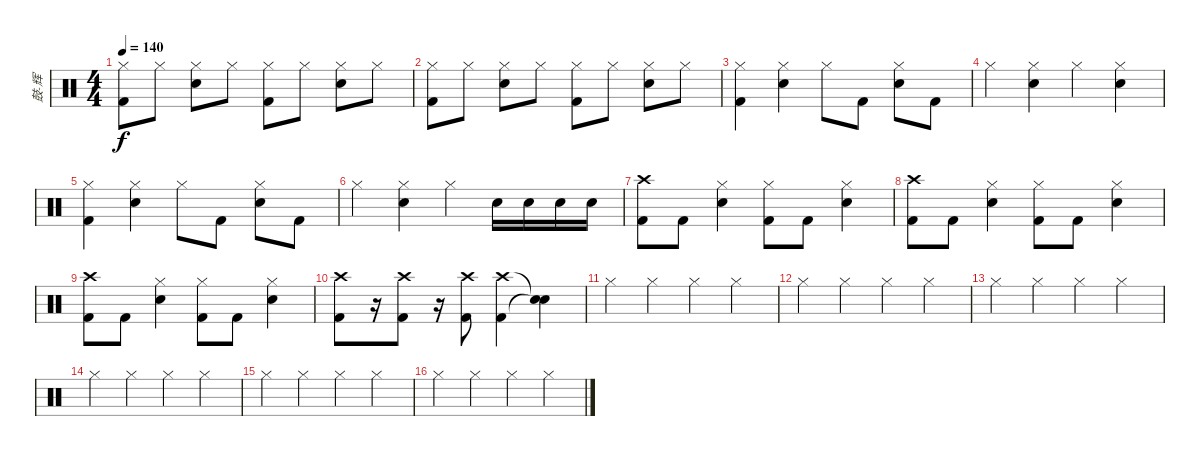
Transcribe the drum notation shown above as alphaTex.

\track ("鼓-辉" "鼓-辉") {instrument percussion}
\staff {score}
\articulation defaults
\ts (4 4)
\tempo 140
\clef neutral
\ks c
("Hi-Hat (closed)" "Kick (hit) 2").8{dy f} "Hi-Hat (closed)".8 ("Hi-Hat (closed)" "Snare (hit) 2").8 "Hi-Hat (closed)".8 ("Hi-Hat (closed)" "Kick (hit) 2").8 "Hi-Hat (closed)".8 ("Hi-Hat (closed)" "Snare (hit) 2").8 "Hi-Hat (closed)".8 |
("Hi-Hat (closed)" "Kick (hit) 2").8 "Hi-Hat (closed)".8 ("Hi-Hat (closed)" "Snare (hit) 2").8 "Hi-Hat (closed)".8 ("Hi-Hat (closed)" "Kick (hit) 2").8 "Hi-Hat (closed)".8 ("Hi-Hat (closed)" "Snare (hit) 2").8 "Hi-Hat (closed)".8 |
("Hi-Hat (closed)" "Kick (hit) 2").4 ("Hi-Hat (closed)" "Snare (hit) 2").4 "Hi-Hat (closed)".8 "Kick (hit) 2".8 ("Hi-Hat (closed)" "Snare (hit) 2").8 "Kick (hit) 2".8 |
"Hi-Hat (closed)".4 ("Hi-Hat (closed)" "Snare (hit) 2").4 "Hi-Hat (closed)".4 ("Hi-Hat (closed)" "Snare (hit) 2").4 |
("Hi-Hat (closed)" "Kick (hit) 2").4 ("Hi-Hat (closed)" "Snare (hit) 2").4 "Hi-Hat (closed)".8 "Kick (hit) 2".8 ("Hi-Hat (closed)" "Snare (hit) 2").8 "Kick (hit) 2".8 |
"Hi-Hat (closed)".4 ("Hi-Hat (closed)" "Snare (hit) 2").4 "Hi-Hat (closed)".4 "Snare (hit) 2".16 "Snare (hit) 2".16 "Snare (hit) 2".16 "Snare (hit) 2".16 |
("Crash high (hit)" "Kick (hit) 2").8 "Kick (hit) 2".8 ("Hi-Hat (closed)" "Snare (hit) 2").4 ("Hi-Hat (closed)" "Kick (hit) 2").8 "Kick (hit) 2".8 ("Hi-Hat (closed)" "Snare (hit) 2").4 |
("Crash high (hit)" "Kick (hit) 2").8 "Kick (hit) 2".8 ("Hi-Hat (closed)" "Snare (hit) 2").4 ("Hi-Hat (closed)" "Kick (hit) 2").8 "Kick (hit) 2".8 ("Hi-Hat (closed)" "Snare (hit) 2").4 |
("Crash high (hit)" "Kick (hit) 2").8 "Kick (hit) 2".8 ("Hi-Hat (closed)" "Snare (hit) 2").4 ("Hi-Hat (closed)" "Kick (hit) 2").8 "Kick (hit) 2".8 ("Hi-Hat (closed)" "Snare (hit) 2").4 |
("Crash high (hit)" "Kick (hit) 2").8 r.16 ("Crash high (hit)" "Kick (hit) 2").8 r.16 ("Crash high (hit)" "Kick (hit) 2").8 ("Crash high (hit)" "Kick (hit) 2").4 ("Snare (hit)"{t} "Snare (hit)"{t}).4 |
"Hi-Hat (closed)".4 "Hi-Hat (closed)".4 "Hi-Hat (closed)".4 "Hi-Hat (closed)".4 |
"Hi-Hat (closed)".4 "Hi-Hat (closed)".4 "Hi-Hat (closed)".4 "Hi-Hat (closed)".4 |
"Hi-Hat (closed)".4 "Hi-Hat (closed)".4 "Hi-Hat (closed)".4 "Hi-Hat (closed)".4 |
"Hi-Hat (closed)".4 "Hi-Hat (closed)".4 "Hi-Hat (closed)".4 "Hi-Hat (closed)".4 |
"Hi-Hat (closed)".4 "Hi-Hat (closed)".4 "Hi-Hat (closed)".4 "Hi-Hat (closed)".4 |
"Hi-Hat (closed)".4 "Hi-Hat (closed)".4 "Hi-Hat (closed)".4 "Hi-Hat (closed)".4
